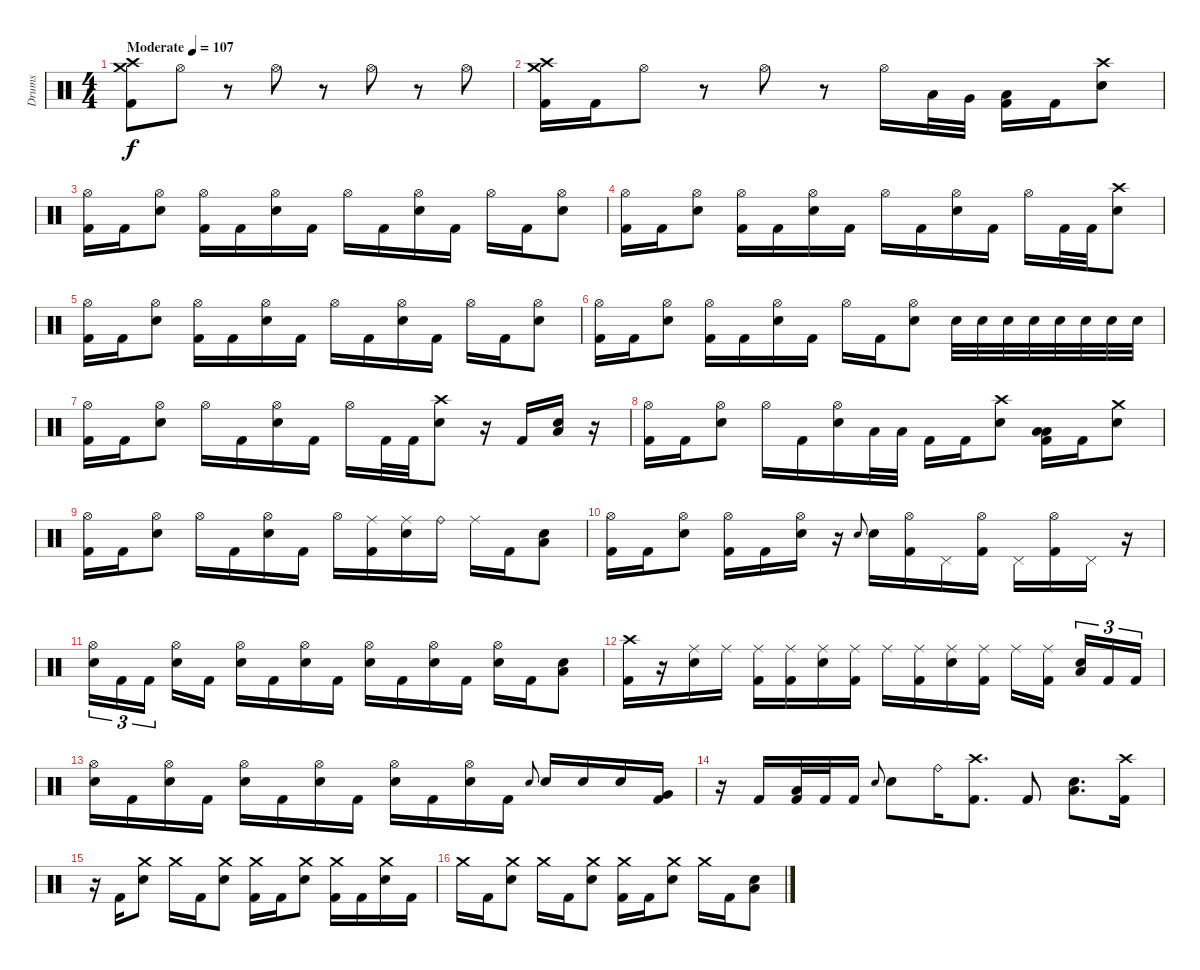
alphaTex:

\track ("Drums" "Drums") {instrument percussion}
\staff {score}
\articulation defaults
\ts (4 4)
\tempo (107 "Moderate")
\clef neutral
\ks c
("Crash high (hit)" "Crash medium (hit)" "Kick (hit) 2").8{dy f} "Hi-Hat (open)".8 r.8 "Hi-Hat (open)".8 r.8 "Hi-Hat (open)".8 r.8 "Hi-Hat (open)".8 |
("Crash high (hit)" "Crash medium (hit)" "Kick (hit) 2").16 "Kick (hit) 2".16 "Hi-Hat (open)".8 r.8 "Hi-Hat (open)".8 r.8 "Hi-Hat (open)".16 "Low Tom (hit)".32 "Very Low Tom (hit)".32 ("Low Floor Tom (hit)" "Kick (hit) 2").16 "Kick (hit) 2".16 ("Crash high (hit)" "Snare (hit) 2").8 |
("Hi-Hat (open)" "Kick (hit) 2").16 "Kick (hit) 2".16 ("Hi-Hat (open)" "Snare (hit) 2").8 ("Hi-Hat (open)" "Kick (hit) 2").16 "Kick (hit) 2".16 ("Hi-Hat (open)" "Snare (hit) 2").16 "Kick (hit) 2".16 "Hi-Hat (open)".16 "Kick (hit) 2".16 ("Hi-Hat (open)" "Snare (hit) 2").16 "Kick (hit) 2".16 "Hi-Hat (open)".16 "Kick (hit) 2".16 ("Hi-Hat (open)" "Snare (hit) 2").8 |
("Hi-Hat (open)" "Kick (hit) 2").16 "Kick (hit) 2".16 ("Hi-Hat (open)" "Snare (hit) 2").8 ("Hi-Hat (open)" "Kick (hit) 2").16 "Kick (hit) 2".16 ("Hi-Hat (open)" "Snare (hit) 2").16 "Kick (hit) 2".16 "Hi-Hat (open)".16 "Kick (hit) 2".16 ("Hi-Hat (open)" "Snare (hit) 2").16 "Kick (hit) 2".16 "Hi-Hat (open)".16 "Kick (hit) 2".32 "Kick (hit) 2".32 ("Crash high (hit)" "Snare (hit) 2").8 |
("Hi-Hat (open)" "Kick (hit) 2").16 "Kick (hit) 2".16 ("Hi-Hat (open)" "Snare (hit) 2").8 ("Hi-Hat (open)" "Kick (hit) 2").16 "Kick (hit) 2".16 ("Hi-Hat (open)" "Snare (hit) 2").16 "Kick (hit) 2".16 "Hi-Hat (open)".16 "Kick (hit) 2".16 ("Hi-Hat (open)" "Snare (hit) 2").16 "Kick (hit) 2".16 "Hi-Hat (open)".16 "Kick (hit) 2".16 ("Hi-Hat (open)" "Snare (hit) 2").8 |
("Hi-Hat (open)" "Kick (hit) 2").16 "Kick (hit) 2".16 ("Hi-Hat (open)" "Snare (hit) 2").8 ("Hi-Hat (open)" "Kick (hit) 2").16 "Kick (hit) 2".16 ("Hi-Hat (open)" "Snare (hit) 2").16 "Kick (hit) 2".16 "Hi-Hat (open)".16 "Kick (hit) 2".16 ("Hi-Hat (open)" "Snare (hit) 2").8 "Snare (hit) 2".32 "Snare (hit) 2".32 "Snare (hit) 2".32 "Snare (hit) 2".32 "Snare (hit) 2".32 "Snare (hit) 2".32 "Snare (hit) 2".32 "Snare (hit) 2".32 |
("Hi-Hat (open)" "Kick (hit) 2").16 "Kick (hit) 2".16 ("Hi-Hat (open)" "Snare (hit) 2").8 "Hi-Hat (open)".16 "Kick (hit) 2".16 ("Hi-Hat (open)" "Snare (hit) 2").16 "Kick (hit) 2".16 "Hi-Hat (open)".16 "Kick (hit) 2".32 "Kick (hit) 2".32 ("Crash high (hit)" "Snare (hit) 2").8 r.16 "Kick (hit) 2".16 ("Low Floor Tom (hit)" "Snare (hit) 2").16 r.16 |
("Hi-Hat (open)" "Kick (hit) 2").16 "Kick (hit) 2".16 ("Hi-Hat (open)" "Snare (hit) 2").8 "Hi-Hat (open)".16 "Kick (hit) 2".16 ("Hi-Hat (open)" "Snare (hit) 2").16 "Low Tom (hit)".32 "Low Floor Tom (hit)".32 "Kick (hit) 2".16 "Kick (hit) 2".16 ("Crash high (hit)" "Snare (hit) 2").8 ("Low Tom (hit)" "Low Floor Tom (hit)" "Kick (hit) 2").16 "Kick (hit) 2".16 ("Crash medium (hit)" "Snare (hit) 2").8 |
("Hi-Hat (open)" "Kick (hit) 2").16 "Kick (hit) 2".16 ("Hi-Hat (open)" "Snare (hit) 2").8 "Hi-Hat (open)".16 "Kick (hit) 2".16 ("Hi-Hat (open)" "Snare (hit) 2").16 "Kick (hit) 2".16 "Hi-Hat (open)".16 ("Ride (middle)" "Kick (hit) 2").16 ("Ride (middle)" "Snare (hit) 2").16 "Ride (bell)".16 "Ride (middle)".16 "Kick (hit) 2".16 ("Low Floor Tom (hit)" "Snare (hit) 2").8 |
("Hi-Hat (open)" "Kick (hit) 2").16 "Kick (hit) 2".16 ("Hi-Hat (open)" "Snare (hit) 2").8 ("Hi-Hat (open)" "Kick (hit) 2").16 "Kick (hit) 2".16 ("Hi-Hat (open)" "Snare (hit) 2").16 r.16 "Snare (hit) 2".8{gr onbeat} "Snare (hit) 2".16 ("Hi-Hat (open)" "Kick (hit) 2").16 "Pedal Hi-Hat (hit)".16 ("Hi-Hat (open)" "Kick (hit) 2").16 "Pedal Hi-Hat (hit)".16 ("Hi-Hat (open)" "Kick (hit) 2").16 "Pedal Hi-Hat (hit)".16 r.16 |
("Hi-Hat (open)" "Snare (hit) 2").16{tu (3 2)} "Kick (hit) 2".16{tu (3 2)} "Kick (hit) 2".16{tu (3 2) beam splitsecondary} ("Hi-Hat (open)" "Snare (hit) 2").16 "Kick (hit) 2".16 ("Hi-Hat (open)" "Snare (hit) 2").16 "Kick (hit) 2".16 ("Hi-Hat (open)" "Snare (hit) 2").16 "Kick (hit) 2".16 ("Hi-Hat (open)" "Snare (hit) 2").16 "Kick (hit) 2".16 ("Hi-Hat (open)" "Snare (hit) 2").16 "Kick (hit) 2".16 ("Hi-Hat (open)" "Snare (hit) 2").16 "Kick (hit) 2".16 ("Low Floor Tom (hit)" "Snare (hit) 2").8 |
("Crash high (hit)" "Kick (hit) 2").16 r.16 ("Ride (middle)" "Snare (hit) 2").16 "Ride (middle)".16 ("Ride (middle)" "Kick (hit) 2").16 ("Ride (middle)" "Kick (hit) 2").16 ("Ride (middle)" "Snare (hit) 2").16 ("Ride (middle)" "Kick (hit) 2").16 "Ride (middle)".16 ("Ride (middle)" "Kick (hit) 2").16 ("Ride (middle)" "Snare (hit) 2").16 ("Ride (middle)" "Kick (hit) 2").16 "Ride (middle)".16 ("Ride (middle)" "Kick (hit) 2").16{beam splitsecondary} ("Low Floor Tom (hit)" "Snare (hit) 2").16{tu (3 2)} "Kick (hit) 2".16{tu (3 2)} "Kick (hit) 2".16{tu (3 2)} |
("Hi-Hat (open)" "Snare (hit) 2").16 "Kick (hit) 2".16 ("Hi-Hat (open)" "Snare (hit) 2").16 "Kick (hit) 2".16 ("Hi-Hat (open)" "Snare (hit) 2").16 "Kick (hit) 2".16 ("Hi-Hat (open)" "Snare (hit) 2").16 "Kick (hit) 2".16 ("Hi-Hat (open)" "Snare (hit) 2").16 "Kick (hit) 2".16 ("Hi-Hat (open)" "Snare (hit) 2").16 "Kick (hit) 2".16 "Snare (hit) 2".8{gr onbeat} "Snare (hit) 2".16 "Snare (hit) 2".16 "Snare (hit) 2".16 ("Very Low Tom (hit)" "Kick (hit) 2").16 |
r.16 "Kick (hit) 2".16 ("Low Floor Tom (hit)" "Kick (hit) 2").32 "Kick (hit) 2".32 "Kick (hit) 2".16 "Snare (hit) 2".8{gr onbeat} "Snare (hit) 2".8 "Ride (bell)".16 ("Crash high (hit)" "Kick (hit) 2").8{d} "Kick (hit) 2".8 ("Low Floor Tom (hit)" "Snare (hit) 2").8{d} ("Crash high (hit)" "Kick (hit) 2").16 |
r.16 "Kick (hit) 2".16 ("Crash medium (hit)" "Snare (hit) 2").8 "Crash medium (hit)".16 "Kick (hit) 2".16 ("Crash medium (hit)" "Snare (hit) 2").8 ("Crash medium (hit)" "Kick (hit) 2").16 "Kick (hit) 2".16 ("Crash medium (hit)" "Snare (hit) 2").8 ("Crash medium (hit)" "Kick (hit) 2").16 "Kick (hit) 2".16 ("Crash medium (hit)" "Snare (hit) 2").16 "Kick (hit) 2".16 |
"Crash medium (hit)".16 "Kick (hit) 2".16 ("Crash medium (hit)" "Snare (hit) 2").8 "Crash medium (hit)".16 "Kick (hit) 2".16 ("Crash medium (hit)" "Snare (hit) 2").8 ("Crash medium (hit)" "Kick (hit) 2").16 "Kick (hit) 2".16 ("Crash medium (hit)" "Snare (hit) 2").8 "Crash medium (hit)".16 "Kick (hit) 2".16 ("Low Floor Tom (hit)" "Snare (hit) 2").8
